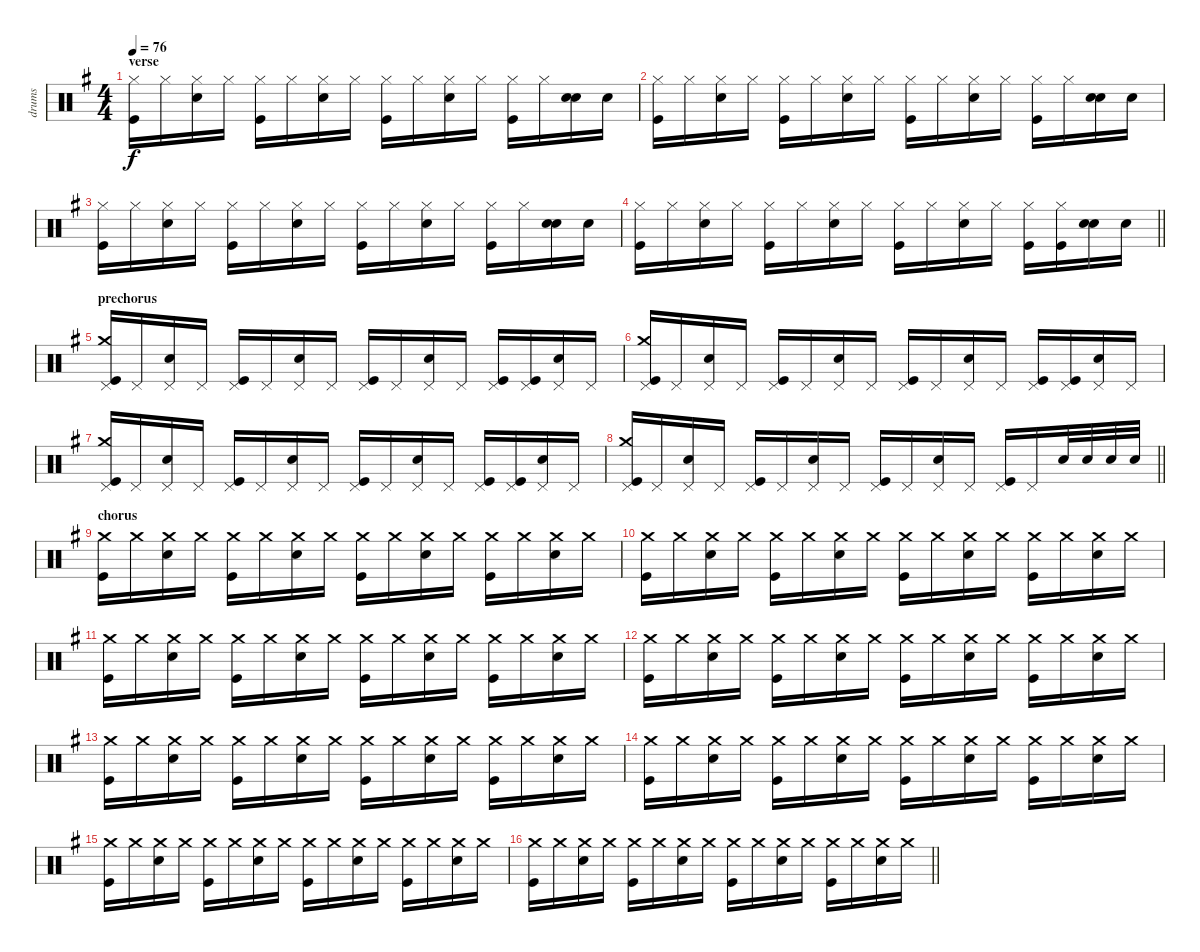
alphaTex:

\track ("drums" "drums") {instrument percussion}
\staff {score}
\articulation defaults
\ts (4 4)
\section ("" "verse")
\tempo 76
\clef neutral
\ks eminor
("Hi-Hat (closed)" "Kick (hit)").16{dy f} "Hi-Hat (closed)".16 ("Hi-Hat (closed)" "Snare (hit) 2").16 "Hi-Hat (closed)".16 ("Hi-Hat (closed)" "Kick (hit)").16 "Hi-Hat (closed)".16 ("Hi-Hat (closed)" "Snare (hit) 2").16 "Hi-Hat (closed)".16 ("Hi-Hat (closed)" "Kick (hit)").16 "Hi-Hat (closed)".16 ("Hi-Hat (closed)" "Snare (hit) 2").16 "Hi-Hat (closed)".16 ("Hi-Hat (closed)" "Kick (hit)").16 "Hi-Hat (closed)".16 ("Snare (hit)" "Snare (hit) 2").16 "Snare (hit)".16 |
("Hi-Hat (closed)" "Kick (hit)").16 "Hi-Hat (closed)".16 ("Hi-Hat (closed)" "Snare (hit) 2").16 "Hi-Hat (closed)".16 ("Hi-Hat (closed)" "Kick (hit)").16 "Hi-Hat (closed)".16 ("Hi-Hat (closed)" "Snare (hit) 2").16 "Hi-Hat (closed)".16 ("Hi-Hat (closed)" "Kick (hit)").16 "Hi-Hat (closed)".16 ("Hi-Hat (closed)" "Snare (hit) 2").16 "Hi-Hat (closed)".16 ("Hi-Hat (closed)" "Kick (hit)").16 "Hi-Hat (closed)".16 ("Snare (hit)" "Snare (hit) 2").16 "Snare (hit)".16 |
("Hi-Hat (closed)" "Kick (hit)").16 "Hi-Hat (closed)".16 ("Hi-Hat (closed)" "Snare (hit) 2").16 "Hi-Hat (closed)".16 ("Hi-Hat (closed)" "Kick (hit)").16 "Hi-Hat (closed)".16 ("Hi-Hat (closed)" "Snare (hit) 2").16 "Hi-Hat (closed)".16 ("Hi-Hat (closed)" "Kick (hit)").16 "Hi-Hat (closed)".16 ("Hi-Hat (closed)" "Snare (hit) 2").16 "Hi-Hat (closed)".16 ("Hi-Hat (closed)" "Kick (hit)").16 "Hi-Hat (closed)".16 ("Snare (hit)" "Snare (hit) 2").16 "Snare (hit)".16 |
\barLineRight lightlight
("Hi-Hat (closed)" "Kick (hit)").16 "Hi-Hat (closed)".16 ("Hi-Hat (closed)" "Snare (hit) 2").16 "Hi-Hat (closed)".16 ("Hi-Hat (closed)" "Kick (hit)").16 "Hi-Hat (closed)".16 ("Hi-Hat (closed)" "Snare (hit) 2").16 "Hi-Hat (closed)".16 ("Hi-Hat (closed)" "Kick (hit)").16 "Hi-Hat (closed)".16 ("Hi-Hat (closed)" "Snare (hit) 2").16 "Hi-Hat (closed)".16 ("Hi-Hat (closed)" "Kick (hit)").16 ("Hi-Hat (closed)" "Kick (hit)").16 ("Snare (hit)" "Snare (hit) 2").16 "Snare (hit)".16 |
\section ("" "prechorus")
("Crash medium (hit)" "Pedal Hi-Hat (hit)" "Kick (hit)").16 "Pedal Hi-Hat (hit)".16 ("Pedal Hi-Hat (hit)" "Snare (hit) 2").16 "Pedal Hi-Hat (hit)".16 ("Pedal Hi-Hat (hit)" "Kick (hit)").16 "Pedal Hi-Hat (hit)".16 ("Pedal Hi-Hat (hit)" "Snare (hit) 2").16 "Pedal Hi-Hat (hit)".16 ("Pedal Hi-Hat (hit)" "Kick (hit)").16 "Pedal Hi-Hat (hit)".16 ("Pedal Hi-Hat (hit)" "Snare (hit) 2").16 "Pedal Hi-Hat (hit)".16 ("Pedal Hi-Hat (hit)" "Kick (hit)").16 ("Pedal Hi-Hat (hit)" "Kick (hit)").16 ("Pedal Hi-Hat (hit)" "Snare (hit) 2").16 "Pedal Hi-Hat (hit)".16 |
("Crash medium (hit)" "Pedal Hi-Hat (hit)" "Kick (hit)").16 "Pedal Hi-Hat (hit)".16 ("Pedal Hi-Hat (hit)" "Snare (hit) 2").16 "Pedal Hi-Hat (hit)".16 ("Pedal Hi-Hat (hit)" "Kick (hit)").16 "Pedal Hi-Hat (hit)".16 ("Pedal Hi-Hat (hit)" "Snare (hit) 2").16 "Pedal Hi-Hat (hit)".16 ("Pedal Hi-Hat (hit)" "Kick (hit)").16 "Pedal Hi-Hat (hit)".16 ("Pedal Hi-Hat (hit)" "Snare (hit) 2").16 "Pedal Hi-Hat (hit)".16 ("Pedal Hi-Hat (hit)" "Kick (hit)").16 ("Pedal Hi-Hat (hit)" "Kick (hit)").16 ("Pedal Hi-Hat (hit)" "Snare (hit) 2").16 "Pedal Hi-Hat (hit)".16 |
("Crash medium (hit)" "Pedal Hi-Hat (hit)" "Kick (hit)").16 "Pedal Hi-Hat (hit)".16 ("Pedal Hi-Hat (hit)" "Snare (hit) 2").16 "Pedal Hi-Hat (hit)".16 ("Pedal Hi-Hat (hit)" "Kick (hit)").16 "Pedal Hi-Hat (hit)".16 ("Pedal Hi-Hat (hit)" "Snare (hit) 2").16 "Pedal Hi-Hat (hit)".16 ("Pedal Hi-Hat (hit)" "Kick (hit)").16 "Pedal Hi-Hat (hit)".16 ("Pedal Hi-Hat (hit)" "Snare (hit) 2").16 "Pedal Hi-Hat (hit)".16 ("Pedal Hi-Hat (hit)" "Kick (hit)").16 ("Pedal Hi-Hat (hit)" "Kick (hit)").16 ("Pedal Hi-Hat (hit)" "Snare (hit) 2").16 "Pedal Hi-Hat (hit)".16 |
\barLineRight lightlight
("Crash medium (hit)" "Pedal Hi-Hat (hit)" "Kick (hit)").16 "Pedal Hi-Hat (hit)".16 ("Pedal Hi-Hat (hit)" "Snare (hit) 2").16 "Pedal Hi-Hat (hit)".16 ("Pedal Hi-Hat (hit)" "Kick (hit)").16 "Pedal Hi-Hat (hit)".16 ("Pedal Hi-Hat (hit)" "Snare (hit) 2").16 "Pedal Hi-Hat (hit)".16 ("Pedal Hi-Hat (hit)" "Kick (hit)").16 "Pedal Hi-Hat (hit)".16 ("Pedal Hi-Hat (hit)" "Snare (hit) 2").16 "Pedal Hi-Hat (hit)".16 ("Pedal Hi-Hat (hit)" "Kick (hit)").16 "Pedal Hi-Hat (hit)".16 "Snare (hit) 2".32 "Snare (hit) 2".32 "Snare (hit) 2".32 "Snare (hit) 2".32 |
\section ("" "chorus")
("Crash medium (hit)" "Kick (hit)").16 "Crash medium (hit)".16 ("Crash medium (hit)" "Snare (hit) 2").16 "Crash medium (hit)".16 ("Crash medium (hit)" "Kick (hit)").16 "Crash medium (hit)".16 ("Crash medium (hit)" "Snare (hit) 2").16 "Crash medium (hit)".16 ("Crash medium (hit)" "Kick (hit)").16 "Crash medium (hit)".16 ("Crash medium (hit)" "Snare (hit) 2").16 "Crash medium (hit)".16 ("Crash medium (hit)" "Kick (hit)").16 "Crash medium (hit)".16 ("Crash medium (hit)" "Snare (hit) 2").16 "Crash medium (hit)".16 |
("Crash medium (hit)" "Kick (hit)").16 "Crash medium (hit)".16 ("Crash medium (hit)" "Snare (hit) 2").16 "Crash medium (hit)".16 ("Crash medium (hit)" "Kick (hit)").16 "Crash medium (hit)".16 ("Crash medium (hit)" "Snare (hit) 2").16 "Crash medium (hit)".16 ("Crash medium (hit)" "Kick (hit)").16 "Crash medium (hit)".16 ("Crash medium (hit)" "Snare (hit) 2").16 "Crash medium (hit)".16 ("Crash medium (hit)" "Kick (hit)").16 "Crash medium (hit)".16 ("Crash medium (hit)" "Snare (hit) 2").16 "Crash medium (hit)".16 |
("Crash medium (hit)" "Kick (hit)").16 "Crash medium (hit)".16 ("Crash medium (hit)" "Snare (hit) 2").16 "Crash medium (hit)".16 ("Crash medium (hit)" "Kick (hit)").16 "Crash medium (hit)".16 ("Crash medium (hit)" "Snare (hit) 2").16 "Crash medium (hit)".16 ("Crash medium (hit)" "Kick (hit)").16 "Crash medium (hit)".16 ("Crash medium (hit)" "Snare (hit) 2").16 "Crash medium (hit)".16 ("Crash medium (hit)" "Kick (hit)").16 "Crash medium (hit)".16 ("Crash medium (hit)" "Snare (hit) 2").16 "Crash medium (hit)".16 |
("Crash medium (hit)" "Kick (hit)").16 "Crash medium (hit)".16 ("Crash medium (hit)" "Snare (hit) 2").16 "Crash medium (hit)".16 ("Crash medium (hit)" "Kick (hit)").16 "Crash medium (hit)".16 ("Crash medium (hit)" "Snare (hit) 2").16 "Crash medium (hit)".16 ("Crash medium (hit)" "Kick (hit)").16 "Crash medium (hit)".16 ("Crash medium (hit)" "Snare (hit) 2").16 "Crash medium (hit)".16 ("Crash medium (hit)" "Kick (hit)").16 "Crash medium (hit)".16 ("Crash medium (hit)" "Snare (hit) 2").16 "Crash medium (hit)".16 |
("Crash medium (hit)" "Kick (hit)").16 "Crash medium (hit)".16 ("Crash medium (hit)" "Snare (hit) 2").16 "Crash medium (hit)".16 ("Crash medium (hit)" "Kick (hit)").16 "Crash medium (hit)".16 ("Crash medium (hit)" "Snare (hit) 2").16 "Crash medium (hit)".16 ("Crash medium (hit)" "Kick (hit)").16 "Crash medium (hit)".16 ("Crash medium (hit)" "Snare (hit) 2").16 "Crash medium (hit)".16 ("Crash medium (hit)" "Kick (hit)").16 "Crash medium (hit)".16 ("Crash medium (hit)" "Snare (hit) 2").16 "Crash medium (hit)".16 |
("Crash medium (hit)" "Kick (hit)").16 "Crash medium (hit)".16 ("Crash medium (hit)" "Snare (hit) 2").16 "Crash medium (hit)".16 ("Crash medium (hit)" "Kick (hit)").16 "Crash medium (hit)".16 ("Crash medium (hit)" "Snare (hit) 2").16 "Crash medium (hit)".16 ("Crash medium (hit)" "Kick (hit)").16 "Crash medium (hit)".16 ("Crash medium (hit)" "Snare (hit) 2").16 "Crash medium (hit)".16 ("Crash medium (hit)" "Kick (hit)").16 "Crash medium (hit)".16 ("Crash medium (hit)" "Snare (hit) 2").16 "Crash medium (hit)".16 |
("Crash medium (hit)" "Kick (hit)").16 "Crash medium (hit)".16 ("Crash medium (hit)" "Snare (hit) 2").16 "Crash medium (hit)".16 ("Crash medium (hit)" "Kick (hit)").16 "Crash medium (hit)".16 ("Crash medium (hit)" "Snare (hit) 2").16 "Crash medium (hit)".16 ("Crash medium (hit)" "Kick (hit)").16 "Crash medium (hit)".16 ("Crash medium (hit)" "Snare (hit) 2").16 "Crash medium (hit)".16 ("Crash medium (hit)" "Kick (hit)").16 "Crash medium (hit)".16 ("Crash medium (hit)" "Snare (hit) 2").16 "Crash medium (hit)".16 |
\barLineRight lightlight
("Crash medium (hit)" "Kick (hit)").16 "Crash medium (hit)".16 ("Crash medium (hit)" "Snare (hit) 2").16 "Crash medium (hit)".16 ("Crash medium (hit)" "Kick (hit)").16 "Crash medium (hit)".16 ("Crash medium (hit)" "Snare (hit) 2").16 "Crash medium (hit)".16 ("Crash medium (hit)" "Kick (hit)").16 "Crash medium (hit)".16 ("Crash medium (hit)" "Snare (hit) 2").16 "Crash medium (hit)".16 ("Crash medium (hit)" "Kick (hit)").16 "Crash medium (hit)".16 ("Crash medium (hit)" "Snare (hit) 2").16 "Crash medium (hit)".16
